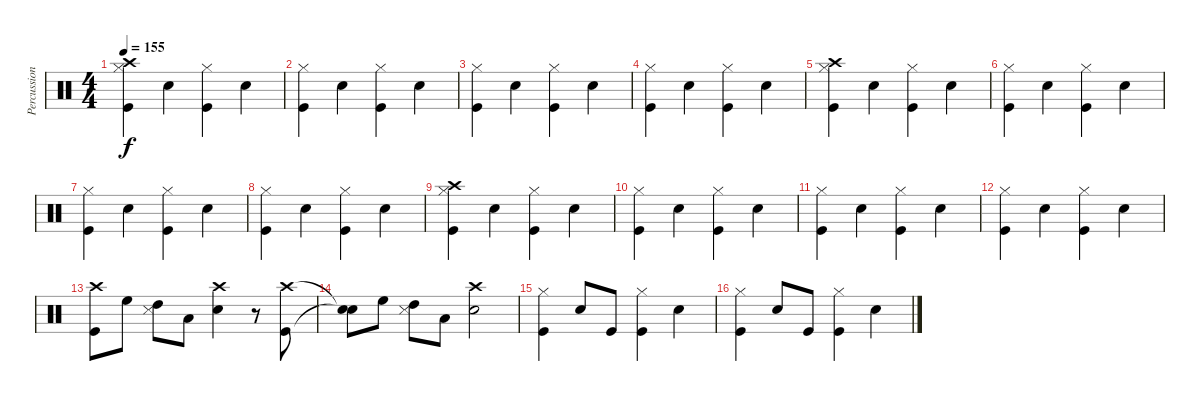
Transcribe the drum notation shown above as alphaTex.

\track ("Percussioni" "Percussion") {instrument percussion}
\staff {score}
\articulation defaults
\ts (4 4)
\tempo 155
\clef neutral
\ks c
("Hi-Hat (closed)" "Kick (hit)" "Crash high (hit)").4{dy f} "Snare (hit) 2".4 ("Hi-Hat (closed)" "Kick (hit)").4 "Snare (hit) 2".4 |
("Hi-Hat (closed)" "Kick (hit)").4 "Snare (hit) 2".4 ("Hi-Hat (closed)" "Kick (hit)").4 "Snare (hit) 2".4 |
("Hi-Hat (closed)" "Kick (hit)").4 "Snare (hit) 2".4 ("Hi-Hat (closed)" "Kick (hit)").4 "Snare (hit) 2".4 |
("Hi-Hat (closed)" "Kick (hit)").4 "Snare (hit) 2".4 ("Hi-Hat (closed)" "Kick (hit)").4 "Snare (hit) 2".4 |
("Hi-Hat (closed)" "Kick (hit)" "Crash high (hit)").4 "Snare (hit) 2".4 ("Hi-Hat (closed)" "Kick (hit)").4 "Snare (hit) 2".4 |
("Hi-Hat (closed)" "Kick (hit)").4 "Snare (hit) 2".4 ("Hi-Hat (closed)" "Kick (hit)").4 "Snare (hit) 2".4 |
("Hi-Hat (closed)" "Kick (hit)").4 "Snare (hit) 2".4 ("Hi-Hat (closed)" "Kick (hit)").4 "Snare (hit) 2".4 |
("Hi-Hat (closed)" "Kick (hit)").4 "Snare (hit) 2".4 ("Hi-Hat (closed)" "Kick (hit)").4 "Snare (hit) 2".4 |
("Hi-Hat (closed)" "Kick (hit)" "Crash high (hit)").4 "Snare (hit) 2".4 ("Hi-Hat (closed)" "Kick (hit)").4 "Snare (hit) 2".4 |
("Hi-Hat (closed)" "Kick (hit)").4 "Snare (hit) 2".4 ("Hi-Hat (closed)" "Kick (hit)").4 "Snare (hit) 2".4 |
("Hi-Hat (closed)" "Kick (hit)").4 "Snare (hit) 2".4 ("Hi-Hat (closed)" "Kick (hit)").4 "Snare (hit) 2".4 |
("Hi-Hat (closed)" "Kick (hit)").4 "Snare (hit) 2".4 ("Hi-Hat (closed)" "Kick (hit)").4 "Snare (hit) 2".4 |
("Crash high (hit)" "Kick (hit)").8 "High Floor Tom (hit)".8 ("High Tom (hit)" "Snare (side stick) 3").8 "Low Tom (hit)".8 ("Crash high (hit)" "Snare (hit) 2").4 r.8 ("Crash high (hit)" "Kick (hit)").8 |
("Snare (hit)"{t} "Snare (hit)"{t}).8 "High Floor Tom (hit)".8 ("High Tom (hit)" "Snare (side stick) 3").8 "Low Tom (hit)".8 ("Crash high (hit)" "Snare (hit) 2").2 |
("Hi-Hat (closed)" "Kick (hit)").4 "Snare (hit) 2".8 "Kick (hit)".8 ("Hi-Hat (closed)" "Kick (hit)").4 "Snare (hit) 2".4 |
("Hi-Hat (closed)" "Kick (hit)").4 "Snare (hit) 2".8 "Kick (hit)".8 ("Hi-Hat (closed)" "Kick (hit)").4 "Snare (hit) 2".4
